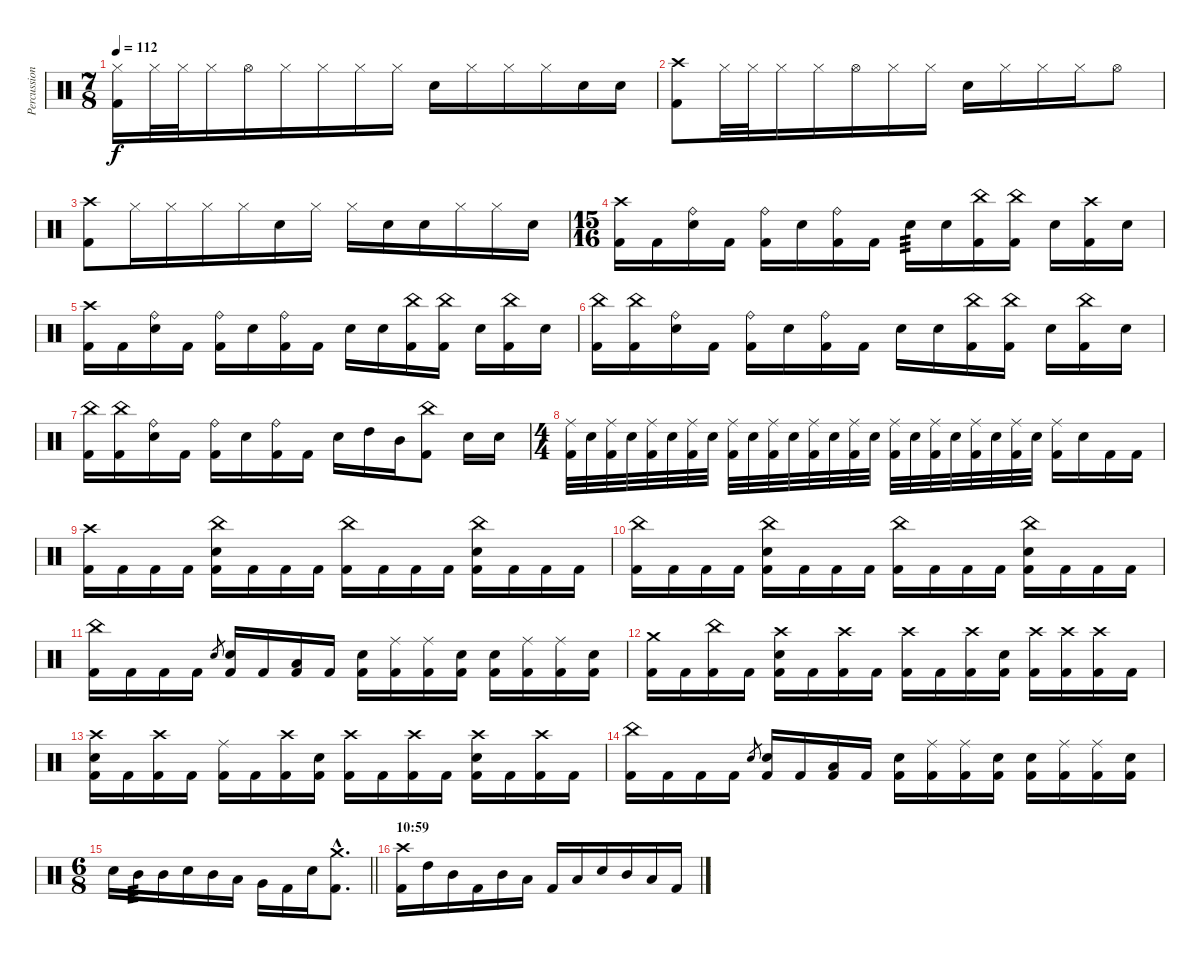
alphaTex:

\track ("Percussion" "Percussion") {instrument percussion}
\staff {score}
\articulation defaults
\ts (7 8)
\tempo 112
\clef neutral
\ks c
("Kick (hit) 2" "Hi-Hat (closed)").16{dy f} "Hi-Hat (closed)".32 "Hi-Hat (closed)".32 "Hi-Hat (closed)".16 "Hi-Hat (open)".16 "Hi-Hat (closed)".16 "Hi-Hat (closed)".16 "Hi-Hat (closed)".16 "Hi-Hat (closed)".16 "Electric Snare (hit)".16 "Hi-Hat (closed)".16 "Hi-Hat (closed)".16 "Hi-Hat (closed)".16 "Electric Snare (hit)".16 "Electric Snare (hit)".16 |
("Crash high (hit)" "Kick (hit) 2").8 "Hi-Hat (closed)".32 "Hi-Hat (closed)".32 "Hi-Hat (closed)".16 "Hi-Hat (closed)".16 "Hi-Hat (open)".16 "Hi-Hat (closed)".16 "Hi-Hat (closed)".16 "Electric Snare (hit)".16 "Hi-Hat (closed)".16 "Hi-Hat (closed)".16 "Hi-Hat (closed)".16 "Hi-Hat (open)".8 |
("Crash high (hit)" "Kick (hit) 2").8 "Hi-Hat (closed)".16 "Hi-Hat (closed)".16 "Hi-Hat (closed)".16 "Hi-Hat (closed)".16 "Electric Snare (hit)".16 "Hi-Hat (closed)".16 "Hi-Hat (closed)".16 "Electric Snare (hit)".16 "Electric Snare (hit)".16 "Hi-Hat (closed)".16 "Hi-Hat (closed)".16 "Electric Snare (hit)".16 |
\ts (15 16)
("Kick (hit) 2" "Crash high (hit)").16 "Kick (hit) 2".16 ("Ride (bell)" "Electric Snare (hit)").16 "Kick (hit) 2".16 ("Kick (hit) 2" "Ride (bell)").16 "Electric Snare (hit)".16 ("Kick (hit) 2" "Ride (bell)").16 "Kick (hit) 2".16 "Electric Snare (hit)".16{tp 3} "Electric Snare (hit)".16 ("Kick (hit) 2" "China (hit)").16 ("Kick (hit) 2" "China (hit)").16 "Electric Snare (hit)".16 ("Crash high (hit)" "Kick (hit) 2").16 "Electric Snare (hit)".16 |
("Kick (hit) 2" "Crash high (hit)").16 "Kick (hit) 2".16 ("Ride (bell)" "Electric Snare (hit)").16 "Kick (hit) 2".16 ("Kick (hit) 2" "Ride (bell)").16 "Electric Snare (hit)".16 ("Kick (hit) 2" "Ride (bell)").16 "Kick (hit) 2".16 "Electric Snare (hit)".16 "Electric Snare (hit)".16 ("Kick (hit) 2" "China (hit)").16 ("Kick (hit) 2" "China (hit)").16 "Electric Snare (hit)".16 ("China (hit)" "Kick (hit) 2").16 "Electric Snare (hit)".16 |
("Kick (hit) 2" "China (hit)").16 ("Kick (hit) 2" "China (hit)").16 ("Ride (bell)" "Electric Snare (hit)").16 "Kick (hit) 2".16 ("Kick (hit) 2" "Ride (bell)").16 "Electric Snare (hit)".16 ("Kick (hit) 2" "Ride (bell)").16 "Kick (hit) 2".16 "Electric Snare (hit)".16 "Electric Snare (hit)".16 ("Kick (hit) 2" "China (hit)").16 ("Kick (hit) 2" "China (hit)").16 "Electric Snare (hit)".16 ("China (hit)" "Kick (hit) 2").16 "Electric Snare (hit)".16 |
("Kick (hit) 2" "China (hit)").16 ("Kick (hit) 2" "China (hit)").16 ("Ride (bell)" "Electric Snare (hit)").16 "Kick (hit) 2".16 ("Kick (hit) 2" "Ride (bell)").16 "Electric Snare (hit)".16 ("Kick (hit) 2" "Ride (bell)").16 "Kick (hit) 2".16 "Electric Snare (hit)".16 "High Tom (hit)".16 "Mid Tom (hit)".16 ("China (hit)" "Kick (hit) 2").8 "Electric Snare (hit)".16 "Electric Snare (hit)".16 |
\ts (4 4)
("Ride (middle)" "Kick (hit) 2").32 "Electric Snare (hit)".32 ("Ride (middle)" "Kick (hit) 2").32 "Electric Snare (hit)".32 ("Ride (middle)" "Kick (hit) 2").32 "Electric Snare (hit)".32 ("Ride (middle)" "Kick (hit) 2").32 "Electric Snare (hit)".32 ("Ride (middle)" "Kick (hit) 2").32 "Electric Snare (hit)".32 ("Ride (middle)" "Kick (hit) 2").32 "Electric Snare (hit)".32 ("Ride (middle)" "Kick (hit) 2").32 "Electric Snare (hit)".32 ("Ride (middle)" "Kick (hit) 2").32 "Electric Snare (hit)".32 ("Ride (middle)" "Kick (hit) 2").32 "Electric Snare (hit)".32 ("Ride (middle)" "Kick (hit) 2").32 "Electric Snare (hit)".32 ("Ride (middle)" "Kick (hit) 2").32 "Electric Snare (hit)".32 ("Ride (middle)" "Kick (hit) 2").32 "Electric Snare (hit)".32 ("Ride (middle)" "Kick (hit) 2").16 "Electric Snare (hit)".16 "Kick (hit) 2".16 "Kick (hit) 2".16 |
("Kick (hit) 2" "Crash high (hit)").16 "Kick (hit) 2".16 "Kick (hit) 2".16 "Kick (hit) 2".16 ("China (hit)" "Kick (hit) 2" "Electric Snare (hit)").16 "Kick (hit) 2".16 "Kick (hit) 2".16 "Kick (hit) 2".16 ("Kick (hit) 2" "China (hit)").16 "Kick (hit) 2".16 "Kick (hit) 2".16 "Kick (hit) 2".16 ("Kick (hit) 2" "China (hit)" "Electric Snare (hit)").16 "Kick (hit) 2".16 "Kick (hit) 2".16 "Kick (hit) 2".16 |
("Kick (hit) 2" "China (hit)").16 "Kick (hit) 2".16 "Kick (hit) 2".16 "Kick (hit) 2".16 ("China (hit)" "Kick (hit) 2" "Electric Snare (hit)").16 "Kick (hit) 2".16 "Kick (hit) 2".16 "Kick (hit) 2".16 ("Kick (hit) 2" "China (hit)").16 "Kick (hit) 2".16 "Kick (hit) 2".16 "Kick (hit) 2".16 ("Kick (hit) 2" "China (hit)" "Electric Snare (hit)").16 "Kick (hit) 2".16 "Kick (hit) 2".16 "Kick (hit) 2".16 |
("Kick (hit) 2" "China (hit)").16 "Kick (hit) 2".16 "Kick (hit) 2".16 "Kick (hit) 2".16 "Electric Snare (hit)".8{gr} ("Electric Snare (hit)" "Kick (hit) 2").16 "Kick (hit) 2".16 ("Low Tom (hit)" "Kick (hit) 2").16 "Kick (hit) 2".16 ("Electric Snare (hit)" "Kick (hit) 2").16 ("Ride (middle)" "Kick (hit) 2").16 ("Ride (middle)" "Kick (hit) 2").16 ("Electric Snare (hit)" "Kick (hit) 2").16 ("Electric Snare (hit)" "Kick (hit) 2").16 ("Ride (middle)" "Kick (hit) 2").16 ("Ride (middle)" "Kick (hit) 2").16 ("Electric Snare (hit)" "Kick (hit) 2").16 |
("Crash medium (hit)" "Kick (hit) 2").16 "Kick (hit) 2".16 ("China (hit)" "Kick (hit) 2").16 "Kick (hit) 2".16 ("Crash high (hit)" "Electric Snare (hit)" "Kick (hit) 2").16 "Kick (hit) 2".16 ("Kick (hit) 2" "Crash high (hit)").16 "Kick (hit) 2".16 ("Kick (hit) 2" "Crash high (hit)").16 "Kick (hit) 2".16 ("Kick (hit) 2" "Crash high (hit)").16 ("Kick (hit) 2" "Electric Snare (hit)").16 ("Kick (hit) 2" "Crash high (hit)").16 ("Kick (hit) 2" "Crash high (hit)").16 ("Kick (hit) 2" "Crash high (hit)").16 "Kick (hit) 2".16 |
("Crash high (hit)" "Electric Snare (hit)" "Kick (hit) 2").16 "Kick (hit) 2".16 ("Kick (hit) 2" "Crash high (hit)").16 "Kick (hit) 2".16 ("Kick (hit) 2" "Ride (middle)").16 "Kick (hit) 2".16 ("Kick (hit) 2" "Crash high (hit)").16 ("Kick (hit) 2" "Electric Snare (hit)").16 ("Kick (hit) 2" "Crash high (hit)").16 "Kick (hit) 2".16 ("Kick (hit) 2" "Crash high (hit)").16 "Kick (hit) 2".16 ("Crash high (hit)" "Electric Snare (hit)" "Kick (hit) 2").16 "Kick (hit) 2".16 ("Kick (hit) 2" "Crash high (hit)").16 "Kick (hit) 2".16 |
("Kick (hit) 2" "China (hit)").16 "Kick (hit) 2".16 "Kick (hit) 2".16 "Kick (hit) 2".16 "Electric Snare (hit)".8{gr} ("Electric Snare (hit)" "Kick (hit) 2").16 "Kick (hit) 2".16 ("Low Tom (hit)" "Kick (hit) 2").16 "Kick (hit) 2".16 ("Electric Snare (hit)" "Kick (hit) 2").16 ("Ride (middle)" "Kick (hit) 2").16 ("Ride (middle)" "Kick (hit) 2").16 ("Electric Snare (hit)" "Kick (hit) 2").16 ("Electric Snare (hit)" "Kick (hit) 2").16 ("Ride (middle)" "Kick (hit) 2").16 ("Ride (middle)" "Kick (hit) 2").16 ("Electric Snare (hit)" "Kick (hit) 2").16 |
\ts (6 8)
\barLineRight lightlight "Electric Snare (hit)".16 "Mid Tom (hit)".16{tp 3} "Mid Tom (hit)".16 "Electric Snare (hit)".16 "Mid Tom (hit)".16 "Low Tom (hit)".16 "Very Low Tom (hit)".16 "Kick (hit) 2".16 "Electric Snare (hit)".16
("Crash medium (hit)"{hac} "Kick (hit) 2"{hac}).8{d} |
\section ("" "10:59")
("Crash high (hit)" "Kick (hit) 2").16 "High Tom (hit)".16 "Mid Tom (hit)".16 "Kick (hit) 2".16 "Mid Tom (hit)".16 "Low Tom (hit)".16 "Kick (hit) 2".16 "Low Tom (hit)".16 "Electric Snare (hit)".16 "Mid Tom (hit)".16 "Low Tom (hit)".16 "Kick (hit) 2".16
